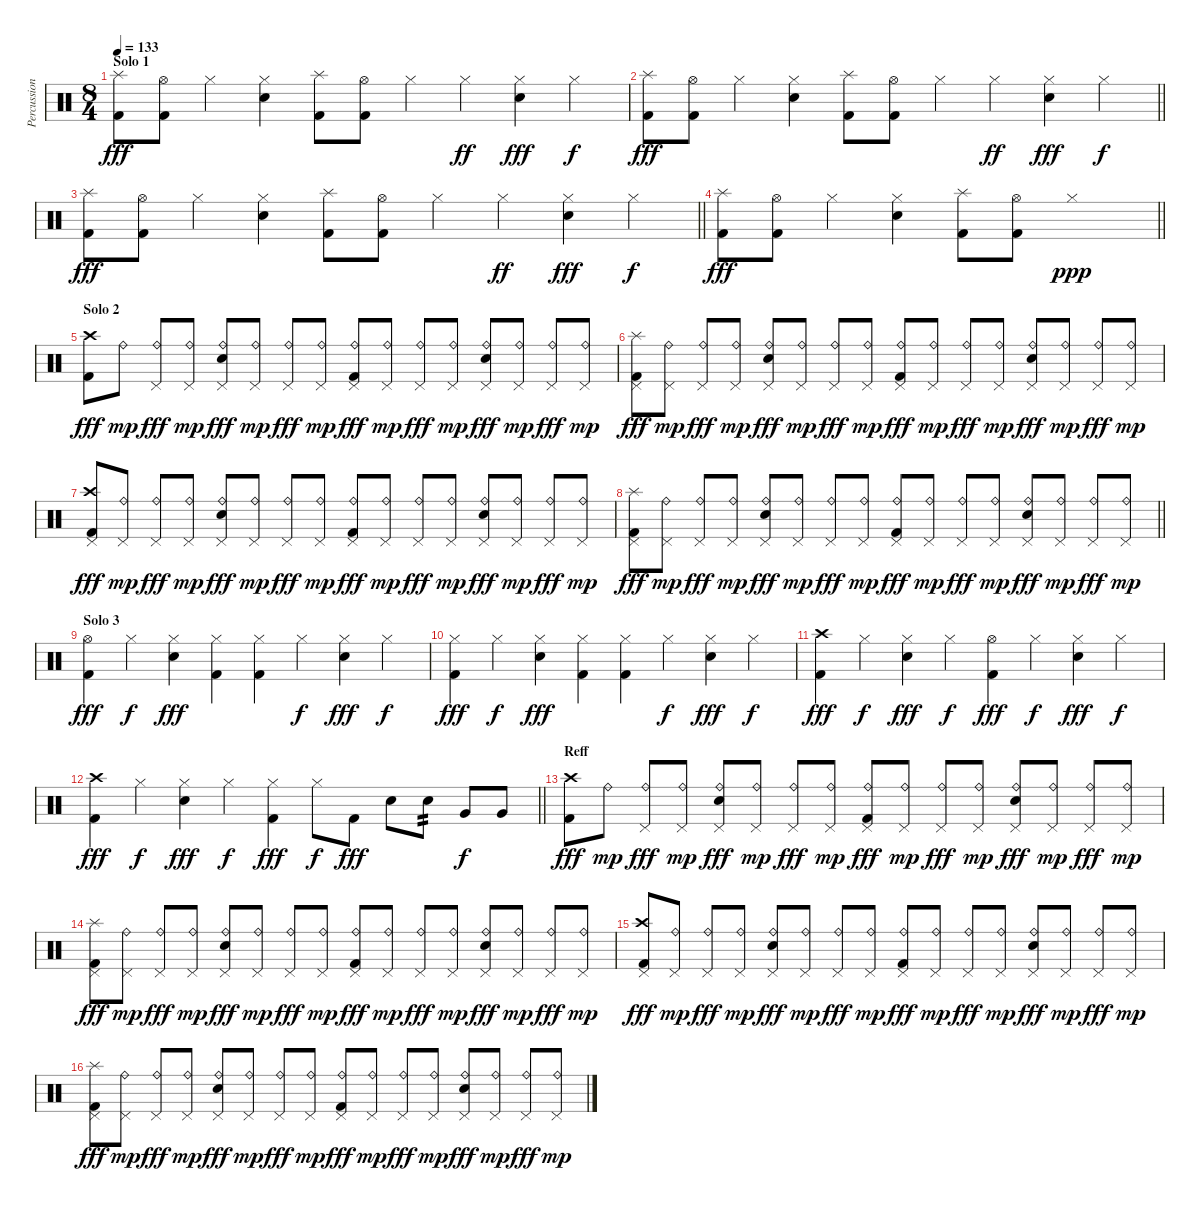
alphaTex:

\track ("Percussion" "Percussion") {instrument percussion}
\staff {score}
\articulation defaults
\ts (8 4)
\section ("" "Solo 1")
\tempo 133
\clef neutral
\ks c
("Splash (hit)" "Kick (hit) 2").8{dy fff} ("Hi-Hat (open)" "Kick (hit) 2").8 "Hi-Hat (closed)".4 ("Hi-Hat (closed)" "Electric Snare (hit)").4 ("Splash (hit)" "Kick (hit) 2").8 ("Hi-Hat (open)" "Kick (hit) 2").8 "Hi-Hat (closed)".4 "Hi-Hat (closed)".4{dy ff} ("Hi-Hat (closed)" "Electric Snare (hit)").4{dy fff} "Hi-Hat (closed)".4{dy f} |
\barLineRight lightlight
("Splash (hit)" "Kick (hit) 2").8{dy fff} ("Hi-Hat (open)" "Kick (hit) 2").8 "Hi-Hat (closed)".4 ("Hi-Hat (closed)" "Electric Snare (hit)").4 ("Splash (hit)" "Kick (hit) 2").8 ("Hi-Hat (open)" "Kick (hit) 2").8 "Hi-Hat (closed)".4 "Hi-Hat (closed)".4{dy ff} ("Hi-Hat (closed)" "Electric Snare (hit)").4{dy fff} "Hi-Hat (closed)".4{dy f} |
\barLineRight lightlight
("Splash (hit)" "Kick (hit) 2").8{dy fff} ("Hi-Hat (open)" "Kick (hit) 2").8 "Hi-Hat (closed)".4 ("Hi-Hat (closed)" "Electric Snare (hit)").4 ("Splash (hit)" "Kick (hit) 2").8 ("Hi-Hat (open)" "Kick (hit) 2").8 "Hi-Hat (closed)".4 "Hi-Hat (closed)".4{dy ff} ("Hi-Hat (closed)" "Electric Snare (hit)").4{dy fff} "Hi-Hat (closed)".4{dy f} |
\barLineRight lightlight
("Splash (hit)" "Kick (hit) 2").8{dy fff} ("Hi-Hat (open)" "Kick (hit) 2").8 "Hi-Hat (closed)".4 ("Hi-Hat (closed)" "Electric Snare (hit)").4 ("Splash (hit)" "Kick (hit) 2").8 ("Hi-Hat (open)" "Kick (hit) 2").8 "Hi-Hat (closed)".1{dy ppp} |
\section ("" "Solo 2")
("Crash high (hit)" "Kick (hit) 2").8{dy fff} "Ride (bell)".8{dy mp} ("Ride (bell)" "Pedal Hi-Hat (hit)").8{dy fff} ("Ride (bell)" "Pedal Hi-Hat (hit)").8{dy mp} ("Ride (bell)" "Pedal Hi-Hat (hit)" "Electric Snare (hit)").8{dy fff} ("Ride (bell)" "Pedal Hi-Hat (hit)").8{dy mp} ("Ride (bell)" "Pedal Hi-Hat (hit)").8{dy fff} ("Ride (bell)" "Pedal Hi-Hat (hit)").8{dy mp} ("Ride (bell)" "Pedal Hi-Hat (hit)" "Kick (hit) 2").8{dy fff} ("Ride (bell)" "Pedal Hi-Hat (hit)").8{dy mp} ("Ride (bell)" "Pedal Hi-Hat (hit)").8{dy fff} ("Ride (bell)" "Pedal Hi-Hat (hit)").8{dy mp} ("Ride (bell)" "Pedal Hi-Hat (hit)" "Electric Snare (hit)").8{dy fff} ("Ride (bell)" "Pedal Hi-Hat (hit)").8{dy mp} ("Ride (bell)" "Pedal Hi-Hat (hit)").8{dy fff} ("Ride (bell)" "Pedal Hi-Hat (hit)").8{dy mp} |
("Splash (hit)" "Pedal Hi-Hat (hit)" "Kick (hit) 2").8{dy fff} ("Ride (bell)" "Pedal Hi-Hat (hit)").8{dy mp} ("Ride (bell)" "Pedal Hi-Hat (hit)").8{dy fff} ("Ride (bell)" "Pedal Hi-Hat (hit)").8{dy mp} ("Ride (bell)" "Pedal Hi-Hat (hit)" "Electric Snare (hit)").8{dy fff} ("Ride (bell)" "Pedal Hi-Hat (hit)").8{dy mp} ("Ride (bell)" "Pedal Hi-Hat (hit)").8{dy fff} ("Ride (bell)" "Pedal Hi-Hat (hit)").8{dy mp} ("Ride (bell)" "Pedal Hi-Hat (hit)" "Kick (hit) 2").8{dy fff} ("Ride (bell)" "Pedal Hi-Hat (hit)").8{dy mp} ("Ride (bell)" "Pedal Hi-Hat (hit)").8{dy fff} ("Ride (bell)" "Pedal Hi-Hat (hit)").8{dy mp} ("Ride (bell)" "Pedal Hi-Hat (hit)" "Electric Snare (hit)").8{dy fff} ("Ride (bell)" "Pedal Hi-Hat (hit)").8{dy mp} ("Ride (bell)" "Pedal Hi-Hat (hit)").8{dy fff} ("Ride (bell)" "Pedal Hi-Hat (hit)").8{dy mp} |
("Crash high (hit)" "Pedal Hi-Hat (hit)" "Kick (hit) 2").8{dy fff} ("Ride (bell)" "Pedal Hi-Hat (hit)").8{dy mp} ("Ride (bell)" "Pedal Hi-Hat (hit)").8{dy fff} ("Ride (bell)" "Pedal Hi-Hat (hit)").8{dy mp} ("Ride (bell)" "Pedal Hi-Hat (hit)" "Electric Snare (hit)").8{dy fff} ("Ride (bell)" "Pedal Hi-Hat (hit)").8{dy mp} ("Ride (bell)" "Pedal Hi-Hat (hit)").8{dy fff} ("Ride (bell)" "Pedal Hi-Hat (hit)").8{dy mp} ("Ride (bell)" "Pedal Hi-Hat (hit)" "Kick (hit) 2").8{dy fff} ("Ride (bell)" "Pedal Hi-Hat (hit)").8{dy mp} ("Ride (bell)" "Pedal Hi-Hat (hit)").8{dy fff} ("Ride (bell)" "Pedal Hi-Hat (hit)").8{dy mp} ("Ride (bell)" "Pedal Hi-Hat (hit)" "Electric Snare (hit)").8{dy fff} ("Ride (bell)" "Pedal Hi-Hat (hit)").8{dy mp} ("Ride (bell)" "Pedal Hi-Hat (hit)").8{dy fff} ("Ride (bell)" "Pedal Hi-Hat (hit)").8{dy mp} |
\barLineRight lightlight
("Splash (hit)" "Pedal Hi-Hat (hit)" "Kick (hit) 2").8{dy fff} ("Ride (bell)" "Pedal Hi-Hat (hit)").8{dy mp} ("Ride (bell)" "Pedal Hi-Hat (hit)").8{dy fff} ("Ride (bell)" "Pedal Hi-Hat (hit)").8{dy mp} ("Ride (bell)" "Pedal Hi-Hat (hit)" "Electric Snare (hit)").8{dy fff} ("Ride (bell)" "Pedal Hi-Hat (hit)").8{dy mp} ("Ride (bell)" "Pedal Hi-Hat (hit)").8{dy fff} ("Ride (bell)" "Pedal Hi-Hat (hit)").8{dy mp} ("Ride (bell)" "Pedal Hi-Hat (hit)" "Kick (hit) 2").8{dy fff} ("Ride (bell)" "Pedal Hi-Hat (hit)").8{dy mp} ("Ride (bell)" "Pedal Hi-Hat (hit)").8{dy fff} ("Ride (bell)" "Pedal Hi-Hat (hit)").8{dy mp} ("Ride (bell)" "Pedal Hi-Hat (hit)" "Electric Snare (hit)").8{dy fff} ("Ride (bell)" "Pedal Hi-Hat (hit)").8{dy mp} ("Ride (bell)" "Pedal Hi-Hat (hit)").8{dy fff} ("Ride (bell)" "Pedal Hi-Hat (hit)").8{dy mp} |
\section ("" "Solo 3")
("Hi-Hat (open)" "Kick (hit) 2").4{dy fff} "Hi-Hat (closed)".4{dy f} ("Hi-Hat (closed)" "Electric Snare (hit)").4{dy fff} ("Hi-Hat (closed)" "Kick (hit) 2").4 ("Hi-Hat (closed)" "Kick (hit) 2").4 "Hi-Hat (closed)".4{dy f} ("Hi-Hat (closed)" "Electric Snare (hit)").4{dy fff} "Hi-Hat (closed)".4{dy f} |
("Hi-Hat (closed)" "Kick (hit) 2").4{dy fff} "Hi-Hat (closed)".4{dy f} ("Hi-Hat (closed)" "Electric Snare (hit)").4{dy fff} ("Hi-Hat (closed)" "Kick (hit) 2").4 ("Hi-Hat (closed)" "Kick (hit) 2").4 "Hi-Hat (closed)".4{dy f} ("Hi-Hat (closed)" "Electric Snare (hit)").4{dy fff} "Hi-Hat (closed)".4{dy f} |
("Crash high (hit)" "Kick (hit) 2").4{dy fff} "Hi-Hat (closed)".4{dy f} ("Hi-Hat (closed)" "Electric Snare (hit)").4{dy fff} "Hi-Hat (closed)".4{dy f} ("Hi-Hat (open)" "Kick (hit) 2").4{dy fff} "Hi-Hat (closed)".4{dy f} ("Hi-Hat (closed)" "Electric Snare (hit)").4{dy fff} "Hi-Hat (closed)".4{dy f} |
\barLineRight lightlight
("Crash high (hit)" "Kick (hit) 2").4{dy fff} "Hi-Hat (closed)".4{dy f} ("Hi-Hat (closed)" "Electric Snare (hit)").4{dy fff} "Hi-Hat (closed)".4{dy f} ("Hi-Hat (closed)" "Kick (hit) 2").4{dy fff} "Hi-Hat (closed)".8{dy f} "Kick (hit) 2".8{dy fff} "Electric Snare (hit)".8 "Electric Snare (hit)".8{tp 2} "Very Low Tom (hit)".8{dy f} "Very Low Tom (hit)".8 |
\section ("" "Reff")
("Crash high (hit)" "Kick (hit) 2").8{dy fff} "Ride (bell)".8{dy mp} ("Ride (bell)" "Pedal Hi-Hat (hit)").8{dy fff} ("Ride (bell)" "Pedal Hi-Hat (hit)").8{dy mp} ("Ride (bell)" "Pedal Hi-Hat (hit)" "Electric Snare (hit)").8{dy fff} ("Ride (bell)" "Pedal Hi-Hat (hit)").8{dy mp} ("Ride (bell)" "Pedal Hi-Hat (hit)").8{dy fff} ("Ride (bell)" "Pedal Hi-Hat (hit)").8{dy mp} ("Ride (bell)" "Pedal Hi-Hat (hit)" "Kick (hit) 2").8{dy fff} ("Ride (bell)" "Pedal Hi-Hat (hit)").8{dy mp} ("Ride (bell)" "Pedal Hi-Hat (hit)").8{dy fff} ("Ride (bell)" "Pedal Hi-Hat (hit)").8{dy mp} ("Ride (bell)" "Pedal Hi-Hat (hit)" "Electric Snare (hit)").8{dy fff} ("Ride (bell)" "Pedal Hi-Hat (hit)").8{dy mp} ("Ride (bell)" "Pedal Hi-Hat (hit)").8{dy fff} ("Ride (bell)" "Pedal Hi-Hat (hit)").8{dy mp} |
("Splash (hit)" "Pedal Hi-Hat (hit)" "Kick (hit) 2").8{dy fff} ("Ride (bell)" "Pedal Hi-Hat (hit)").8{dy mp} ("Ride (bell)" "Pedal Hi-Hat (hit)").8{dy fff} ("Ride (bell)" "Pedal Hi-Hat (hit)").8{dy mp} ("Ride (bell)" "Pedal Hi-Hat (hit)" "Electric Snare (hit)").8{dy fff} ("Ride (bell)" "Pedal Hi-Hat (hit)").8{dy mp} ("Ride (bell)" "Pedal Hi-Hat (hit)").8{dy fff} ("Ride (bell)" "Pedal Hi-Hat (hit)").8{dy mp} ("Ride (bell)" "Pedal Hi-Hat (hit)" "Kick (hit) 2").8{dy fff} ("Ride (bell)" "Pedal Hi-Hat (hit)").8{dy mp} ("Ride (bell)" "Pedal Hi-Hat (hit)").8{dy fff} ("Ride (bell)" "Pedal Hi-Hat (hit)").8{dy mp} ("Ride (bell)" "Pedal Hi-Hat (hit)" "Electric Snare (hit)").8{dy fff} ("Ride (bell)" "Pedal Hi-Hat (hit)").8{dy mp} ("Ride (bell)" "Pedal Hi-Hat (hit)").8{dy fff} ("Ride (bell)" "Pedal Hi-Hat (hit)").8{dy mp} |
("Crash high (hit)" "Pedal Hi-Hat (hit)" "Kick (hit) 2").8{dy fff} ("Ride (bell)" "Pedal Hi-Hat (hit)").8{dy mp} ("Ride (bell)" "Pedal Hi-Hat (hit)").8{dy fff} ("Ride (bell)" "Pedal Hi-Hat (hit)").8{dy mp} ("Ride (bell)" "Pedal Hi-Hat (hit)" "Electric Snare (hit)").8{dy fff} ("Ride (bell)" "Pedal Hi-Hat (hit)").8{dy mp} ("Ride (bell)" "Pedal Hi-Hat (hit)").8{dy fff} ("Ride (bell)" "Pedal Hi-Hat (hit)").8{dy mp} ("Ride (bell)" "Pedal Hi-Hat (hit)" "Kick (hit) 2").8{dy fff} ("Ride (bell)" "Pedal Hi-Hat (hit)").8{dy mp} ("Ride (bell)" "Pedal Hi-Hat (hit)").8{dy fff} ("Ride (bell)" "Pedal Hi-Hat (hit)").8{dy mp} ("Ride (bell)" "Pedal Hi-Hat (hit)" "Electric Snare (hit)").8{dy fff} ("Ride (bell)" "Pedal Hi-Hat (hit)").8{dy mp} ("Ride (bell)" "Pedal Hi-Hat (hit)").8{dy fff} ("Ride (bell)" "Pedal Hi-Hat (hit)").8{dy mp} |
("Splash (hit)" "Pedal Hi-Hat (hit)" "Kick (hit) 2").8{dy fff} ("Ride (bell)" "Pedal Hi-Hat (hit)").8{dy mp} ("Ride (bell)" "Pedal Hi-Hat (hit)").8{dy fff} ("Ride (bell)" "Pedal Hi-Hat (hit)").8{dy mp} ("Ride (bell)" "Pedal Hi-Hat (hit)" "Electric Snare (hit)").8{dy fff} ("Ride (bell)" "Pedal Hi-Hat (hit)").8{dy mp} ("Ride (bell)" "Pedal Hi-Hat (hit)").8{dy fff} ("Ride (bell)" "Pedal Hi-Hat (hit)").8{dy mp} ("Ride (bell)" "Pedal Hi-Hat (hit)" "Kick (hit) 2").8{dy fff} ("Ride (bell)" "Pedal Hi-Hat (hit)").8{dy mp} ("Ride (bell)" "Pedal Hi-Hat (hit)").8{dy fff} ("Ride (bell)" "Pedal Hi-Hat (hit)").8{dy mp} ("Ride (bell)" "Pedal Hi-Hat (hit)" "Electric Snare (hit)").8{dy fff} ("Ride (bell)" "Pedal Hi-Hat (hit)").8{dy mp} ("Ride (bell)" "Pedal Hi-Hat (hit)").8{dy fff} ("Ride (bell)" "Pedal Hi-Hat (hit)").8{dy mp}
